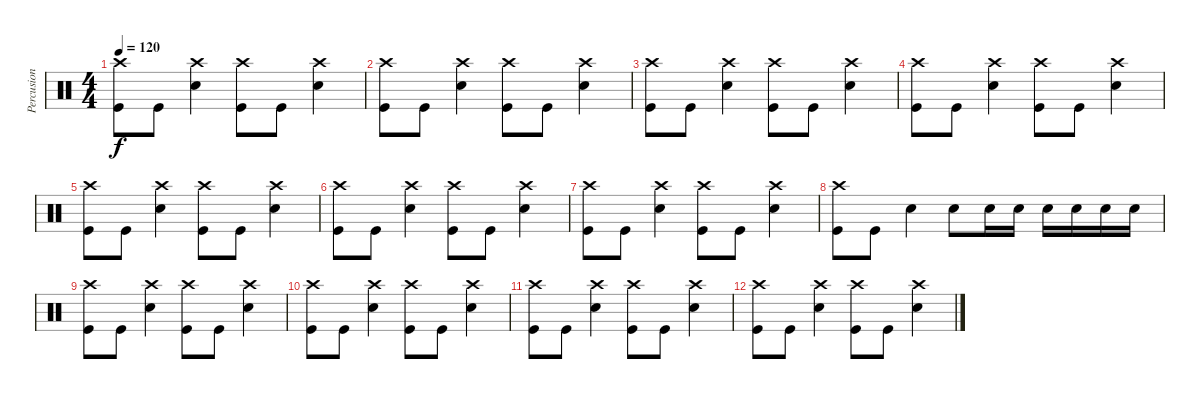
\track ("Percusion " "Percusion ") {instrument percussion}
\staff {score}
\articulation defaults
\ts (4 4)
\tempo 120
\clef neutral
\ks c
("Crash high (hit)" "Kick (hit)").8{dy f} "Kick (hit)".8 ("Electric Snare (hit)" "Crash high (hit)").4 ("Crash high (hit)" "Kick (hit)").8 "Kick (hit)".8 ("Electric Snare (hit)" "Crash high (hit)").4 |
("Crash high (hit)" "Kick (hit)").8 "Kick (hit)".8 ("Electric Snare (hit)" "Crash high (hit)").4 ("Crash high (hit)" "Kick (hit)").8 "Kick (hit)".8 ("Electric Snare (hit)" "Crash high (hit)").4 |
("Crash high (hit)" "Kick (hit)").8 "Kick (hit)".8 ("Electric Snare (hit)" "Crash high (hit)").4 ("Crash high (hit)" "Kick (hit)").8 "Kick (hit)".8 ("Electric Snare (hit)" "Crash high (hit)").4 |
("Crash high (hit)" "Kick (hit)").8 "Kick (hit)".8 ("Electric Snare (hit)" "Crash high (hit)").4 ("Crash high (hit)" "Kick (hit)").8 "Kick (hit)".8 ("Electric Snare (hit)" "Crash high (hit)").4 |
("Crash high (hit)" "Kick (hit)").8 "Kick (hit)".8 ("Electric Snare (hit)" "Crash high (hit)").4 ("Crash high (hit)" "Kick (hit)").8 "Kick (hit)".8 ("Electric Snare (hit)" "Crash high (hit)").4 |
("Crash high (hit)" "Kick (hit)").8 "Kick (hit)".8 ("Electric Snare (hit)" "Crash high (hit)").4 ("Crash high (hit)" "Kick (hit)").8 "Kick (hit)".8 ("Electric Snare (hit)" "Crash high (hit)").4 |
("Crash high (hit)" "Kick (hit)").8 "Kick (hit)".8 ("Electric Snare (hit)" "Crash high (hit)").4 ("Crash high (hit)" "Kick (hit)").8 "Kick (hit)".8 ("Electric Snare (hit)" "Crash high (hit)").4 |
("Crash high (hit)" "Kick (hit)").8 "Kick (hit)".8 "Electric Snare (hit)".4 "Electric Snare (hit)".8 "Electric Snare (hit)".16 "Electric Snare (hit)".16 "Electric Snare (hit)".16 "Electric Snare (hit)".16 "Electric Snare (hit)".16 "Electric Snare (hit)".16 |
("Crash high (hit)" "Kick (hit)").8 "Kick (hit)".8 ("Electric Snare (hit)" "Crash high (hit)").4 ("Crash high (hit)" "Kick (hit)").8 "Kick (hit)".8 ("Electric Snare (hit)" "Crash high (hit)").4 |
("Crash high (hit)" "Kick (hit)").8 "Kick (hit)".8 ("Electric Snare (hit)" "Crash high (hit)").4 ("Crash high (hit)" "Kick (hit)").8 "Kick (hit)".8 ("Electric Snare (hit)" "Crash high (hit)").4 |
("Crash high (hit)" "Kick (hit)").8 "Kick (hit)".8 ("Electric Snare (hit)" "Crash high (hit)").4 ("Crash high (hit)" "Kick (hit)").8 "Kick (hit)".8 ("Electric Snare (hit)" "Crash high (hit)").4 |
("Crash high (hit)" "Kick (hit)").8 "Kick (hit)".8 ("Electric Snare (hit)" "Crash high (hit)").4 ("Crash high (hit)" "Kick (hit)").8 "Kick (hit)".8 ("Electric Snare (hit)" "Crash high (hit)").4
